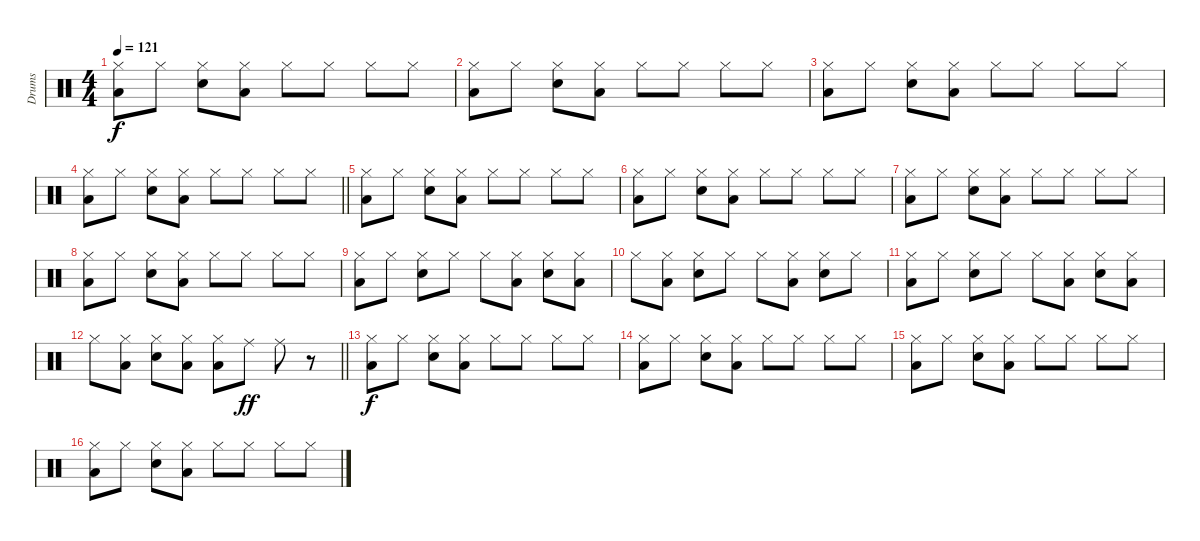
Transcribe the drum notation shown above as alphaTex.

\track ("Drums" "Drums") {instrument percussion}
\staff {score}
\articulation defaults
\ts (4 4)
\tempo 121
\clef neutral
\ks c
("Hi-Hat (closed)" "Low Floor Tom (hit)").8{dy f} "Hi-Hat (closed)".8 ("Hi-Hat (closed)" "Electric Snare (hit)").8 ("Hi-Hat (closed)" "Low Floor Tom (hit)").8 "Hi-Hat (closed)".8 "Hi-Hat (closed)".8 "Hi-Hat (closed)".8 "Hi-Hat (closed)".8 |
("Hi-Hat (closed)" "Low Floor Tom (hit)").8 "Hi-Hat (closed)".8 ("Hi-Hat (closed)" "Electric Snare (hit)").8 ("Hi-Hat (closed)" "Low Floor Tom (hit)").8 "Hi-Hat (closed)".8 "Hi-Hat (closed)".8 "Hi-Hat (closed)".8 "Hi-Hat (closed)".8 |
("Hi-Hat (closed)" "Low Floor Tom (hit)").8 "Hi-Hat (closed)".8 ("Hi-Hat (closed)" "Electric Snare (hit)").8 ("Hi-Hat (closed)" "Low Floor Tom (hit)").8 "Hi-Hat (closed)".8 "Hi-Hat (closed)".8 "Hi-Hat (closed)".8 "Hi-Hat (closed)".8 |
\barLineRight lightlight
("Hi-Hat (closed)" "Low Floor Tom (hit)").8 "Hi-Hat (closed)".8 ("Hi-Hat (closed)" "Electric Snare (hit)").8 ("Hi-Hat (closed)" "Low Floor Tom (hit)").8 "Hi-Hat (closed)".8 "Hi-Hat (closed)".8 "Hi-Hat (closed)".8 "Hi-Hat (closed)".8 |
("Hi-Hat (closed)" "Low Floor Tom (hit)").8 "Hi-Hat (closed)".8 ("Hi-Hat (closed)" "Electric Snare (hit)").8 ("Hi-Hat (closed)" "Low Floor Tom (hit)").8 "Hi-Hat (closed)".8 "Hi-Hat (closed)".8 "Hi-Hat (closed)".8 "Hi-Hat (closed)".8 |
("Hi-Hat (closed)" "Low Floor Tom (hit)").8 "Hi-Hat (closed)".8 ("Hi-Hat (closed)" "Electric Snare (hit)").8 ("Hi-Hat (closed)" "Low Floor Tom (hit)").8 "Hi-Hat (closed)".8 "Hi-Hat (closed)".8 "Hi-Hat (closed)".8 "Hi-Hat (closed)".8 |
("Hi-Hat (closed)" "Low Floor Tom (hit)").8 "Hi-Hat (closed)".8 ("Hi-Hat (closed)" "Electric Snare (hit)").8 ("Hi-Hat (closed)" "Low Floor Tom (hit)").8 "Hi-Hat (closed)".8 "Hi-Hat (closed)".8 "Hi-Hat (closed)".8 "Hi-Hat (closed)".8 |
("Hi-Hat (closed)" "Low Floor Tom (hit)").8 "Hi-Hat (closed)".8 ("Hi-Hat (closed)" "Electric Snare (hit)").8 ("Hi-Hat (closed)" "Low Floor Tom (hit)").8 "Hi-Hat (closed)".8 "Hi-Hat (closed)".8 "Hi-Hat (closed)".8 "Hi-Hat (closed)".8 |
("Hi-Hat (closed)" "Low Floor Tom (hit)").8 "Hi-Hat (closed)".8 ("Hi-Hat (closed)" "Electric Snare (hit)").8 "Hi-Hat (closed)".8 "Hi-Hat (closed)".8 ("Hi-Hat (closed)" "Low Floor Tom (hit)").8 ("Hi-Hat (closed)" "Electric Snare (hit)").8 ("Hi-Hat (closed)" "Low Floor Tom (hit)").8 |
"Hi-Hat (closed)".8 ("Hi-Hat (closed)" "Low Floor Tom (hit)").8 ("Hi-Hat (closed)" "Electric Snare (hit)").8 "Hi-Hat (closed)".8 "Hi-Hat (closed)".8 ("Hi-Hat (closed)" "Low Floor Tom (hit)").8 ("Hi-Hat (closed)" "Electric Snare (hit)").8 "Hi-Hat (closed)".8 |
("Hi-Hat (closed)" "Low Floor Tom (hit)").8 "Hi-Hat (closed)".8 ("Hi-Hat (closed)" "Electric Snare (hit)").8 "Hi-Hat (closed)".8 "Hi-Hat (closed)".8 ("Hi-Hat (closed)" "Low Floor Tom (hit)").8 ("Hi-Hat (closed)" "Electric Snare (hit)").8 ("Hi-Hat (closed)" "Low Floor Tom (hit)").8 |
\barLineRight lightlight "Hi-Hat (closed)".8
("Hi-Hat (closed)" "Low Floor Tom (hit)").8 ("Hi-Hat (closed)" "Electric Snare (hit)").8 ("Hi-Hat (closed)" "Low Floor Tom (hit)").8 ("Hi-Hat (closed)" "Low Floor Tom (hit)").8 "Ride (middle)".8{dy ff} "Ride (middle)".8 r.8 |
("Hi-Hat (closed)" "Low Floor Tom (hit)").8{dy f} "Hi-Hat (closed)".8 ("Hi-Hat (closed)" "Electric Snare (hit)").8 ("Hi-Hat (closed)" "Low Floor Tom (hit)").8 "Hi-Hat (closed)".8 "Hi-Hat (closed)".8 "Hi-Hat (closed)".8 "Hi-Hat (closed)".8 |
("Hi-Hat (closed)" "Low Floor Tom (hit)").8 "Hi-Hat (closed)".8 ("Hi-Hat (closed)" "Electric Snare (hit)").8 ("Hi-Hat (closed)" "Low Floor Tom (hit)").8 "Hi-Hat (closed)".8 "Hi-Hat (closed)".8 "Hi-Hat (closed)".8 "Hi-Hat (closed)".8 |
("Hi-Hat (closed)" "Low Floor Tom (hit)").8 "Hi-Hat (closed)".8 ("Hi-Hat (closed)" "Electric Snare (hit)").8 ("Hi-Hat (closed)" "Low Floor Tom (hit)").8 "Hi-Hat (closed)".8 "Hi-Hat (closed)".8 "Hi-Hat (closed)".8 "Hi-Hat (closed)".8 |
("Hi-Hat (closed)" "Low Floor Tom (hit)").8 "Hi-Hat (closed)".8 ("Hi-Hat (closed)" "Electric Snare (hit)").8 ("Hi-Hat (closed)" "Low Floor Tom (hit)").8 "Hi-Hat (closed)".8 "Hi-Hat (closed)".8 "Hi-Hat (closed)".8 "Hi-Hat (closed)".8
